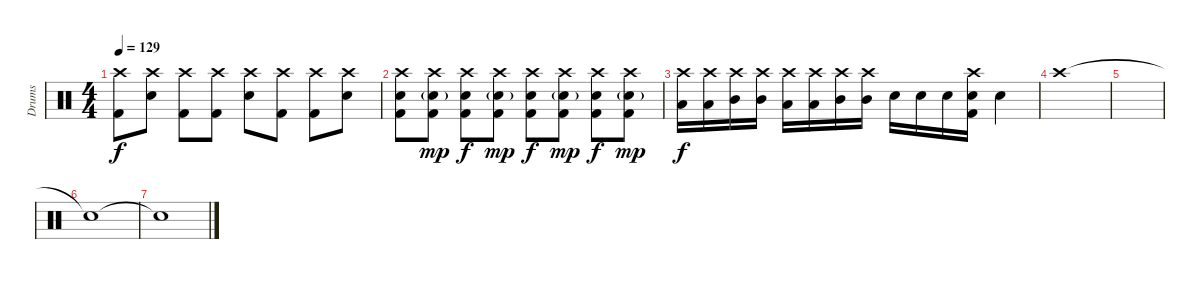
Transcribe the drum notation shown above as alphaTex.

\track ("Drums" "Drums") {instrument percussion}
\staff {score}
\articulation defaults
\ts (4 4)
\tempo 129
\clef neutral
\ks c
("Crash high (hit)" "Kick (hit) 2").8{dy f} ("Crash high (hit)" "Electric Snare (hit)").8 ("Crash high (hit)" "Kick (hit) 2").8 ("Crash high (hit)" "Kick (hit) 2").8 ("Crash high (hit)" "Electric Snare (hit)").8 ("Crash high (hit)" "Kick (hit) 2").8 ("Crash high (hit)" "Kick (hit) 2").8 ("Crash high (hit)" "Electric Snare (hit)").8 |
("Crash high (hit)" "Kick (hit) 2" "Electric Snare (hit)").8 ("Crash high (hit)" "Kick (hit) 2" "Electric Snare (hit)"{g}).8{dy mp} ("Crash high (hit)" "Kick (hit) 2" "Electric Snare (hit)").8{dy f} ("Crash high (hit)" "Kick (hit) 2" "Electric Snare (hit)"{g}).8{dy mp} ("Crash high (hit)" "Kick (hit) 2" "Electric Snare (hit)").8{dy f} ("Crash high (hit)" "Kick (hit) 2" "Electric Snare (hit)"{g}).8{dy mp} ("Crash high (hit)" "Kick (hit) 2" "Electric Snare (hit)").8{dy f} ("Crash high (hit)" "Kick (hit) 2" "Electric Snare (hit)"{g}).8{dy mp} |
("Crash high (hit)" "Low Tom (hit)").16{dy f} ("Crash high (hit)" "Low Tom (hit)").16 ("Mid Tom (hit)" "Crash high (hit)").16 ("Mid Tom (hit)" "Crash high (hit)").16 ("Crash high (hit)" "Low Tom (hit)").16 ("Crash high (hit)" "Low Tom (hit)").16 ("Mid Tom (hit)" "Crash high (hit)").16 ("Mid Tom (hit)" "Crash high (hit)").16 "Electric Snare (hit)".16 "Electric Snare (hit)".16 "Electric Snare (hit)".16 ("Kick (hit) 2" "Electric Snare (hit)" "Crash high (hit)").16 "Snare (hit)".4 |
"Crash high (hit)".1 |
|
"Snare (hit)"{t}.1 |
"Snare (hit)"{t}.1
